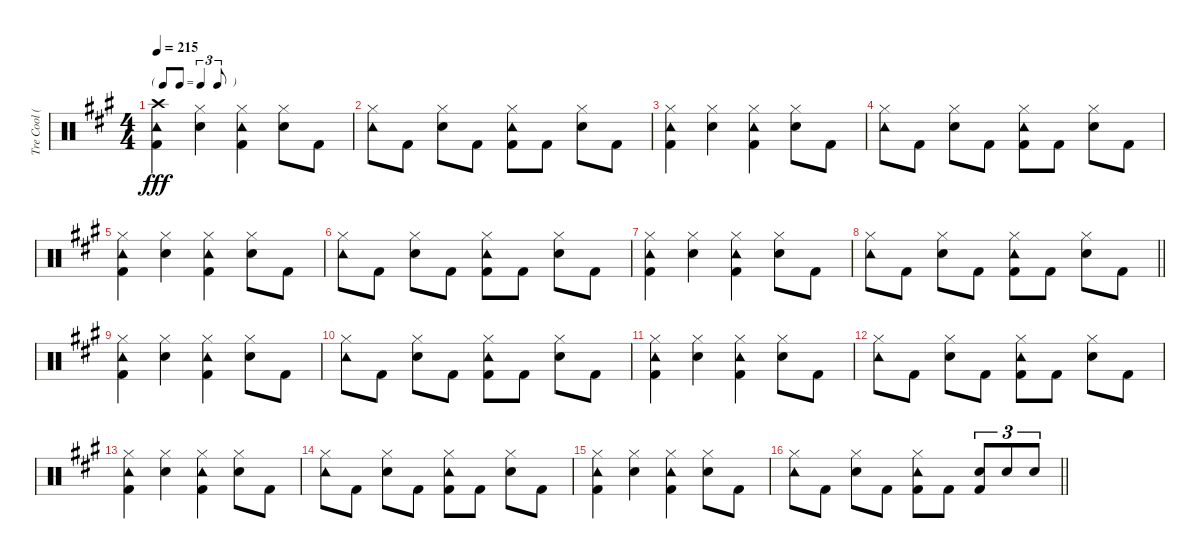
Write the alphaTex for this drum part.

\track ("Tre Cool (Drums)" "Tre Cool (") {instrument percussion}
\staff {score}
\articulation defaults
\ts (4 4)
\tf triplet8th
\tempo 215
\clef neutral
\ks a
("Crash high (hit)" "Kick (hit) 2" "Tambourine (hit)").4{dy fff} ("Hi-Hat (closed)" "Electric Snare (hit)").4 ("Hi-Hat (closed)" "Kick (hit) 2" "Tambourine (hit)").4 ("Hi-Hat (closed)" "Electric Snare (hit)").8 "Kick (hit) 2".8 |
("Hi-Hat (closed)" "Tambourine (hit)").8 "Kick (hit) 2".8 ("Hi-Hat (closed)" "Electric Snare (hit)").8 "Kick (hit) 2".8 ("Hi-Hat (closed)" "Kick (hit) 2" "Tambourine (hit)").8 "Kick (hit) 2".8 ("Hi-Hat (closed)" "Electric Snare (hit)").8 "Kick (hit) 2".8 |
("Hi-Hat (closed)" "Kick (hit) 2" "Tambourine (hit)").4 ("Hi-Hat (closed)" "Electric Snare (hit)").4 ("Hi-Hat (closed)" "Kick (hit) 2" "Tambourine (hit)").4 ("Hi-Hat (closed)" "Electric Snare (hit)").8 "Kick (hit) 2".8 |
("Hi-Hat (closed)" "Tambourine (hit)").8 "Kick (hit) 2".8 ("Hi-Hat (closed)" "Electric Snare (hit)").8 "Kick (hit) 2".8 ("Hi-Hat (closed)" "Kick (hit) 2" "Tambourine (hit)").8 "Kick (hit) 2".8 ("Hi-Hat (closed)" "Electric Snare (hit)").8 "Kick (hit) 2".8 |
("Hi-Hat (closed)" "Kick (hit) 2" "Tambourine (hit)").4 ("Hi-Hat (closed)" "Electric Snare (hit)").4 ("Hi-Hat (closed)" "Kick (hit) 2" "Tambourine (hit)").4 ("Hi-Hat (closed)" "Electric Snare (hit)").8 "Kick (hit) 2".8 |
("Hi-Hat (closed)" "Tambourine (hit)").8 "Kick (hit) 2".8 ("Hi-Hat (closed)" "Electric Snare (hit)").8 "Kick (hit) 2".8 ("Hi-Hat (closed)" "Kick (hit) 2" "Tambourine (hit)").8 "Kick (hit) 2".8 ("Hi-Hat (closed)" "Electric Snare (hit)").8 "Kick (hit) 2".8 |
("Hi-Hat (closed)" "Kick (hit) 2" "Tambourine (hit)").4 ("Hi-Hat (closed)" "Electric Snare (hit)").4 ("Hi-Hat (closed)" "Kick (hit) 2" "Tambourine (hit)").4 ("Hi-Hat (closed)" "Electric Snare (hit)").8 "Kick (hit) 2".8 |
\barLineRight lightlight
("Hi-Hat (closed)" "Tambourine (hit)").8 "Kick (hit) 2".8 ("Hi-Hat (closed)" "Electric Snare (hit)").8 "Kick (hit) 2".8 ("Hi-Hat (closed)" "Kick (hit) 2" "Tambourine (hit)").8 "Kick (hit) 2".8 ("Hi-Hat (closed)" "Electric Snare (hit)").8 "Kick (hit) 2".8 |
("Hi-Hat (closed)" "Kick (hit) 2" "Tambourine (hit)").4 ("Hi-Hat (closed)" "Electric Snare (hit)").4 ("Hi-Hat (closed)" "Kick (hit) 2" "Tambourine (hit)").4 ("Hi-Hat (closed)" "Electric Snare (hit)").8 "Kick (hit) 2".8 |
("Hi-Hat (closed)" "Tambourine (hit)").8 "Kick (hit) 2".8 ("Hi-Hat (closed)" "Electric Snare (hit)").8 "Kick (hit) 2".8 ("Hi-Hat (closed)" "Kick (hit) 2" "Tambourine (hit)").8 "Kick (hit) 2".8 ("Hi-Hat (closed)" "Electric Snare (hit)").8 "Kick (hit) 2".8 |
("Hi-Hat (closed)" "Kick (hit) 2" "Tambourine (hit)").4 ("Hi-Hat (closed)" "Electric Snare (hit)").4 ("Hi-Hat (closed)" "Kick (hit) 2" "Tambourine (hit)").4 ("Hi-Hat (closed)" "Electric Snare (hit)").8 "Kick (hit) 2".8 |
("Hi-Hat (closed)" "Tambourine (hit)").8 "Kick (hit) 2".8 ("Hi-Hat (closed)" "Electric Snare (hit)").8 "Kick (hit) 2".8 ("Hi-Hat (closed)" "Kick (hit) 2" "Tambourine (hit)").8 "Kick (hit) 2".8 ("Hi-Hat (closed)" "Electric Snare (hit)").8 "Kick (hit) 2".8 |
("Hi-Hat (closed)" "Kick (hit) 2" "Tambourine (hit)").4 ("Hi-Hat (closed)" "Electric Snare (hit)").4 ("Hi-Hat (closed)" "Kick (hit) 2" "Tambourine (hit)").4 ("Hi-Hat (closed)" "Electric Snare (hit)").8 "Kick (hit) 2".8 |
("Hi-Hat (closed)" "Tambourine (hit)").8 "Kick (hit) 2".8 ("Hi-Hat (closed)" "Electric Snare (hit)").8 "Kick (hit) 2".8 ("Hi-Hat (closed)" "Kick (hit) 2" "Tambourine (hit)").8 "Kick (hit) 2".8 ("Hi-Hat (closed)" "Electric Snare (hit)").8 "Kick (hit) 2".8 |
("Hi-Hat (closed)" "Kick (hit) 2" "Tambourine (hit)").4 ("Hi-Hat (closed)" "Electric Snare (hit)").4 ("Hi-Hat (closed)" "Kick (hit) 2" "Tambourine (hit)").4 ("Hi-Hat (closed)" "Electric Snare (hit)").8 "Kick (hit) 2".8 |
\barLineRight lightlight
("Hi-Hat (closed)" "Tambourine (hit)").8 "Kick (hit) 2".8 ("Hi-Hat (closed)" "Electric Snare (hit)").8 "Kick (hit) 2".8 ("Hi-Hat (closed)" "Kick (hit) 2" "Tambourine (hit)").8 "Kick (hit) 2".8 ("Electric Snare (hit)" "Kick (hit) 2").8{tu (3 2)} "Electric Snare (hit)".8{tu (3 2)} "Electric Snare (hit)".8{tu (3 2)}
